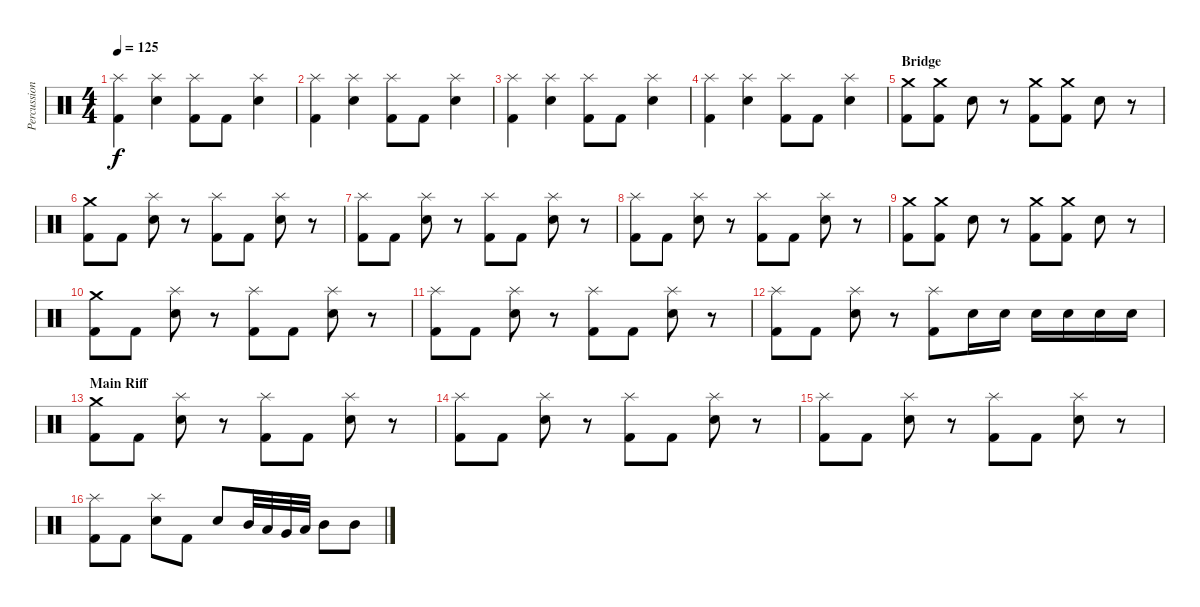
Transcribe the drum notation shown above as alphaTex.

\track ("Percussion" "Percussion") {instrument percussion}
\staff {score}
\articulation defaults
\ts (4 4)
\tempo 125
\clef neutral
\ks c
("Splash (hit)" "Kick (hit) 2").4{dy f} ("Splash (hit)" "Snare (hit) 2").4 ("Splash (hit)" "Kick (hit) 2").8 "Kick (hit) 2".8 ("Splash (hit)" "Snare (hit) 2").4 |
("Splash (hit)" "Kick (hit) 2").4 ("Splash (hit)" "Snare (hit) 2").4 ("Splash (hit)" "Kick (hit) 2").8 "Kick (hit) 2".8 ("Splash (hit)" "Snare (hit) 2").4 |
("Splash (hit)" "Kick (hit) 2").4 ("Splash (hit)" "Snare (hit) 2").4 ("Splash (hit)" "Kick (hit) 2").8 "Kick (hit) 2".8 ("Splash (hit)" "Snare (hit) 2").4 |
("Splash (hit)" "Kick (hit) 2").4 ("Splash (hit)" "Snare (hit) 2").4 ("Splash (hit)" "Kick (hit) 2").8 "Kick (hit) 2".8 ("Splash (hit)" "Snare (hit) 2").4 |
\section ("" "Bridge")
("Crash medium (hit)" "Kick (hit) 2").8 ("Crash medium (hit)" "Kick (hit) 2").8 "Snare (hit) 2".8 r.8 ("Crash medium (hit)" "Kick (hit) 2").8 ("Crash medium (hit)" "Kick (hit) 2").8 "Snare (hit) 2".8 r.8 |
("Crash medium (hit)" "Kick (hit) 2").8 "Kick (hit) 2".8 ("Splash (hit)" "Snare (hit) 2").8 r.8 ("Splash (hit)" "Kick (hit) 2").8 "Kick (hit) 2".8 ("Splash (hit)" "Snare (hit) 2").8 r.8 |
("Splash (hit)" "Kick (hit) 2").8 "Kick (hit) 2".8 ("Splash (hit)" "Snare (hit) 2").8 r.8 ("Splash (hit)" "Kick (hit) 2").8 "Kick (hit) 2".8 ("Splash (hit)" "Snare (hit) 2").8 r.8 |
("Splash (hit)" "Kick (hit) 2").8 "Kick (hit) 2".8 ("Splash (hit)" "Snare (hit) 2").8 r.8 ("Splash (hit)" "Kick (hit) 2").8 "Kick (hit) 2".8 ("Splash (hit)" "Snare (hit) 2").8 r.8 |
("Crash medium (hit)" "Kick (hit) 2").8 ("Crash medium (hit)" "Kick (hit) 2").8 "Snare (hit) 2".8 r.8 ("Crash medium (hit)" "Kick (hit) 2").8 ("Crash medium (hit)" "Kick (hit) 2").8 "Snare (hit) 2".8 r.8 |
("Crash medium (hit)" "Kick (hit) 2").8 "Kick (hit) 2".8 ("Splash (hit)" "Snare (hit) 2").8 r.8 ("Splash (hit)" "Kick (hit) 2").8 "Kick (hit) 2".8 ("Splash (hit)" "Snare (hit) 2").8 r.8 |
("Splash (hit)" "Kick (hit) 2").8 "Kick (hit) 2".8 ("Splash (hit)" "Snare (hit) 2").8 r.8 ("Splash (hit)" "Kick (hit) 2").8 "Kick (hit) 2".8 ("Splash (hit)" "Snare (hit) 2").8 r.8 |
("Splash (hit)" "Kick (hit) 2").8 "Kick (hit) 2".8 ("Splash (hit)" "Snare (hit) 2").8 r.8 ("Splash (hit)" "Kick (hit) 2").8 "Snare (hit) 2".16 "Snare (hit) 2".16 "Snare (hit) 2".16 "Snare (hit) 2".16 "Snare (hit) 2".16 "Snare (hit) 2".16 |
\section ("" "Main Riff")
("Crash medium (hit)" "Kick (hit) 2").8 "Kick (hit) 2".8 ("Splash (hit)" "Snare (hit) 2").8 r.8 ("Splash (hit)" "Kick (hit) 2").8 "Kick (hit) 2".8 ("Splash (hit)" "Snare (hit) 2").8 r.8 |
("Splash (hit)" "Kick (hit) 2").8 "Kick (hit) 2".8 ("Splash (hit)" "Snare (hit) 2").8 r.8 ("Splash (hit)" "Kick (hit) 2").8 "Kick (hit) 2".8 ("Splash (hit)" "Snare (hit) 2").8 r.8 |
("Splash (hit)" "Kick (hit) 2").8 "Kick (hit) 2".8 ("Splash (hit)" "Snare (hit) 2").8 r.8 ("Splash (hit)" "Kick (hit) 2").8 "Kick (hit) 2".8 ("Splash (hit)" "Snare (hit) 2").8 r.8 |
("Splash (hit)" "Kick (hit) 2").8 "Kick (hit) 2".8 ("Splash (hit)" "Snare (hit) 2").8 "Kick (hit) 2".8 "Snare (hit) 2".8 "Mid Tom (hit)".32 "Low Tom (hit)".32 "Very Low Tom (hit)".32 "Low Tom (hit)".32 "Mid Tom (hit)".8 "Mid Tom (hit)".8
